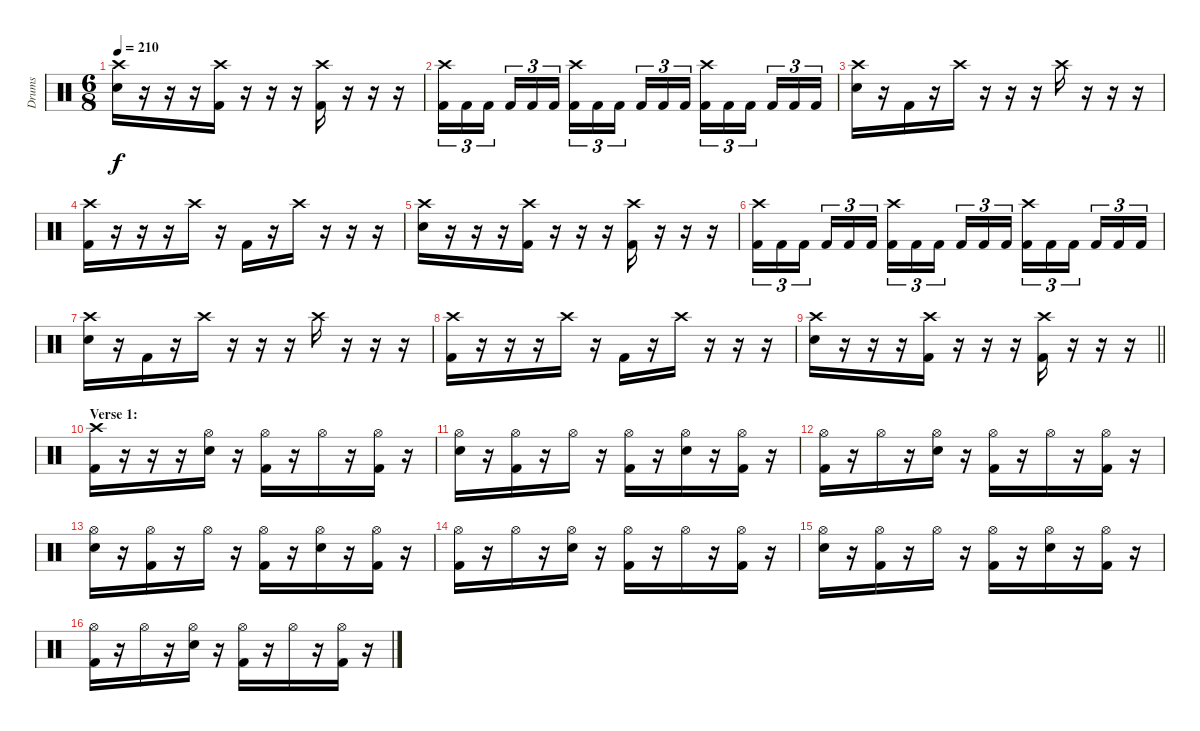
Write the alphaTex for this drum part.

\track ("Drums" "Drums") {instrument percussion}
\staff {score}
\articulation defaults
\ts (6 8)
\tempo 210
\clef neutral
\ks c
("Crash high (hit)" "Electric Snare (hit)").16{dy f} r.16 r.16 r.16 ("Crash high (hit)" "Kick (hit) 2").16 r.16 r.16 r.16 ("Crash high (hit)" "Kick (hit) 2").16 r.16 r.16 r.16 |
("Crash high (hit)" "Kick (hit) 2").16{tu (3 2)} "Kick (hit) 2".16{tu (3 2)} "Kick (hit) 2".16{tu (3 2) beam splitsecondary} "Kick (hit) 2".16{tu (3 2)} "Kick (hit) 2".16{tu (3 2)} "Kick (hit) 2".16{tu (3 2) beam splitsecondary} ("Crash high (hit)" "Kick (hit) 2").16{tu (3 2)} "Kick (hit) 2".16{tu (3 2)} "Kick (hit) 2".16{tu (3 2)} "Kick (hit) 2".16{tu (3 2)} "Kick (hit) 2".16{tu (3 2)} "Kick (hit) 2".16{tu (3 2) beam splitsecondary} ("Crash high (hit)" "Kick (hit) 2").16{tu (3 2)} "Kick (hit) 2".16{tu (3 2)} "Kick (hit) 2".16{tu (3 2) beam splitsecondary} "Kick (hit) 2".16{tu (3 2)} "Kick (hit) 2".16{tu (3 2)} "Kick (hit) 2".16{tu (3 2)} |
("Crash high (hit)" "Electric Snare (hit)").16 r.16 "Kick (hit) 2".16 r.16 "Crash high (hit)".16 r.16 r.16 r.16 "Crash high (hit)".16 r.16 r.16 r.16 |
("Crash high (hit)" "Kick (hit) 2").16 r.16 r.16 r.16 "Crash high (hit)".16 r.16 "Kick (hit) 2".16 r.16 "Crash high (hit)".16 r.16 r.16 r.16 |
("Crash high (hit)" "Electric Snare (hit)").16 r.16 r.16 r.16 ("Crash high (hit)" "Kick (hit) 2").16 r.16 r.16 r.16 ("Crash high (hit)" "Kick (hit) 2").16 r.16 r.16 r.16 |
("Crash high (hit)" "Kick (hit) 2").16{tu (3 2)} "Kick (hit) 2".16{tu (3 2)} "Kick (hit) 2".16{tu (3 2) beam splitsecondary} "Kick (hit) 2".16{tu (3 2)} "Kick (hit) 2".16{tu (3 2)} "Kick (hit) 2".16{tu (3 2) beam splitsecondary} ("Crash high (hit)" "Kick (hit) 2").16{tu (3 2)} "Kick (hit) 2".16{tu (3 2)} "Kick (hit) 2".16{tu (3 2)} "Kick (hit) 2".16{tu (3 2)} "Kick (hit) 2".16{tu (3 2)} "Kick (hit) 2".16{tu (3 2) beam splitsecondary} ("Crash high (hit)" "Kick (hit) 2").16{tu (3 2)} "Kick (hit) 2".16{tu (3 2)} "Kick (hit) 2".16{tu (3 2) beam splitsecondary} "Kick (hit) 2".16{tu (3 2)} "Kick (hit) 2".16{tu (3 2)} "Kick (hit) 2".16{tu (3 2)} |
("Crash high (hit)" "Electric Snare (hit)").16 r.16 "Kick (hit) 2".16 r.16 "Crash high (hit)".16 r.16 r.16 r.16 "Crash high (hit)".16 r.16 r.16 r.16 |
("Crash high (hit)" "Kick (hit) 2").16 r.16 r.16 r.16 "Crash high (hit)".16 r.16 "Kick (hit) 2".16 r.16 "Crash high (hit)".16 r.16 r.16 r.16 |
\barLineRight lightlight
("Crash high (hit)" "Electric Snare (hit)").16 r.16 r.16 r.16 ("Crash high (hit)" "Kick (hit) 2").16 r.16 r.16 r.16 ("Crash high (hit)" "Kick (hit) 2").16 r.16 r.16 r.16 |
\section ("" "Verse 1:")
("Crash high (hit)" "Kick (hit) 2").16 r.16 r.16 r.16 ("Hi-Hat (open)" "Electric Snare (hit)").16 r.16 ("Hi-Hat (open)" "Kick (hit) 2").16 r.16 "Hi-Hat (open)".16 r.16 ("Hi-Hat (open)" "Kick (hit) 2").16 r.16 |
("Hi-Hat (open)" "Electric Snare (hit)").16 r.16 ("Hi-Hat (open)" "Kick (hit) 2").16 r.16 "Hi-Hat (open)".16 r.16 ("Hi-Hat (open)" "Kick (hit) 2").16 r.16 ("Hi-Hat (open)" "Electric Snare (hit)").16 r.16 ("Hi-Hat (open)" "Kick (hit) 2").16 r.16 |
("Hi-Hat (open)" "Kick (hit) 2").16 r.16 "Hi-Hat (open)".16 r.16 ("Hi-Hat (open)" "Electric Snare (hit)").16 r.16 ("Hi-Hat (open)" "Kick (hit) 2").16 r.16 "Hi-Hat (open)".16 r.16 ("Hi-Hat (open)" "Kick (hit) 2").16 r.16 |
("Hi-Hat (open)" "Electric Snare (hit)").16 r.16 ("Hi-Hat (open)" "Kick (hit) 2").16 r.16 "Hi-Hat (open)".16 r.16 ("Hi-Hat (open)" "Kick (hit) 2").16 r.16 ("Hi-Hat (open)" "Electric Snare (hit)").16 r.16 ("Hi-Hat (open)" "Kick (hit) 2").16 r.16 |
("Hi-Hat (open)" "Kick (hit) 2").16 r.16 "Hi-Hat (open)".16 r.16 ("Hi-Hat (open)" "Electric Snare (hit)").16 r.16 ("Hi-Hat (open)" "Kick (hit) 2").16 r.16 "Hi-Hat (open)".16 r.16 ("Hi-Hat (open)" "Kick (hit) 2").16 r.16 |
("Hi-Hat (open)" "Electric Snare (hit)").16 r.16 ("Hi-Hat (open)" "Kick (hit) 2").16 r.16 "Hi-Hat (open)".16 r.16 ("Hi-Hat (open)" "Kick (hit) 2").16 r.16 ("Hi-Hat (open)" "Electric Snare (hit)").16 r.16 ("Hi-Hat (open)" "Kick (hit) 2").16 r.16 |
("Hi-Hat (open)" "Kick (hit) 2").16 r.16 "Hi-Hat (open)".16 r.16 ("Hi-Hat (open)" "Electric Snare (hit)").16 r.16 ("Hi-Hat (open)" "Kick (hit) 2").16 r.16 "Hi-Hat (open)".16 r.16 ("Hi-Hat (open)" "Kick (hit) 2").16 r.16
